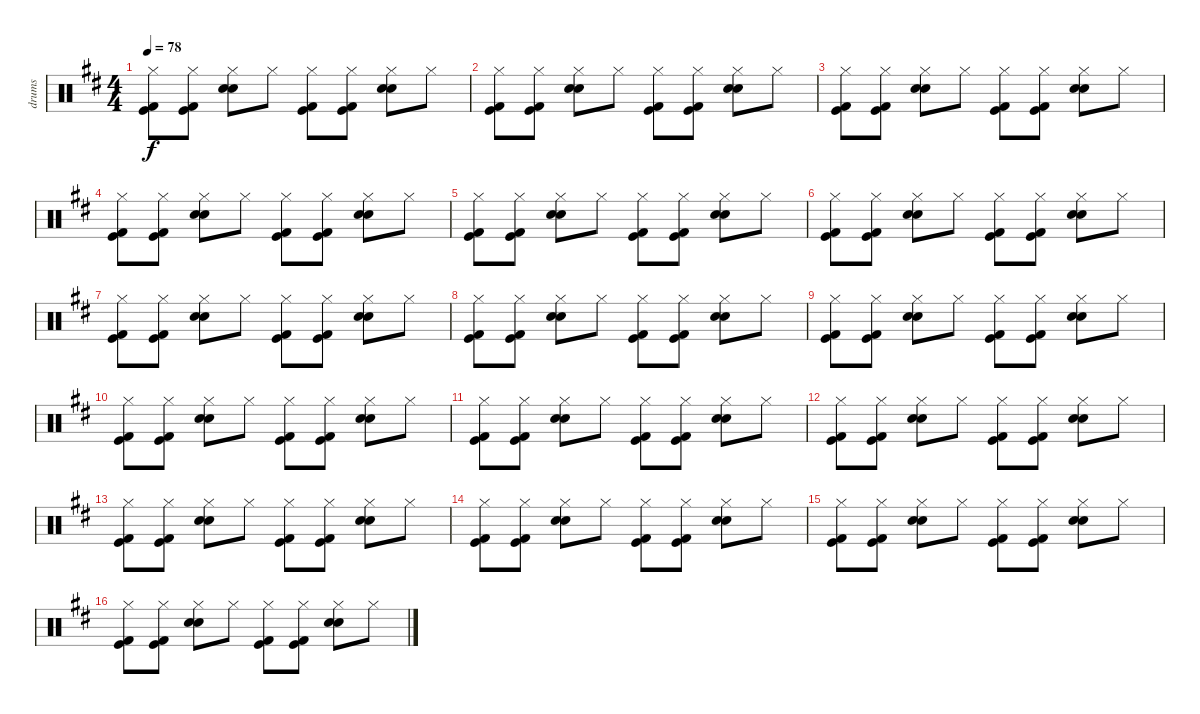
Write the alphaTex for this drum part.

\track ("drums" "drums") {instrument percussion}
\staff {score}
\articulation defaults
\ts (4 4)
\tempo 78
\clef neutral
\ks d
("Kick (hit)" "Kick (hit) 2" "Hi-Hat (closed)").8{dy f} ("Kick (hit)" "Kick (hit) 2" "Hi-Hat (closed)").8 ("Electric Snare (hit)" "Snare (hit) 2" "Hi-Hat (closed)").8 "Hi-Hat (closed)".8 ("Kick (hit)" "Kick (hit) 2" "Hi-Hat (closed)").8 ("Kick (hit)" "Kick (hit) 2" "Hi-Hat (closed)").8 ("Electric Snare (hit)" "Snare (hit) 2" "Hi-Hat (closed)").8 "Hi-Hat (closed)".8 |
("Kick (hit)" "Kick (hit) 2" "Hi-Hat (closed)").8 ("Kick (hit)" "Kick (hit) 2" "Hi-Hat (closed)").8 ("Electric Snare (hit)" "Snare (hit) 2" "Hi-Hat (closed)").8 "Hi-Hat (closed)".8 ("Kick (hit)" "Kick (hit) 2" "Hi-Hat (closed)").8 ("Kick (hit)" "Kick (hit) 2" "Hi-Hat (closed)").8 ("Electric Snare (hit)" "Snare (hit) 2" "Hi-Hat (closed)").8 "Hi-Hat (closed)".8 |
("Kick (hit)" "Kick (hit) 2" "Hi-Hat (closed)").8 ("Kick (hit)" "Kick (hit) 2" "Hi-Hat (closed)").8 ("Electric Snare (hit)" "Snare (hit) 2" "Hi-Hat (closed)").8 "Hi-Hat (closed)".8 ("Kick (hit)" "Kick (hit) 2" "Hi-Hat (closed)").8 ("Kick (hit)" "Kick (hit) 2" "Hi-Hat (closed)").8 ("Electric Snare (hit)" "Snare (hit) 2" "Hi-Hat (closed)").8 "Hi-Hat (closed)".8 |
("Kick (hit)" "Kick (hit) 2" "Hi-Hat (closed)").8 ("Kick (hit)" "Kick (hit) 2" "Hi-Hat (closed)").8 ("Electric Snare (hit)" "Snare (hit) 2" "Hi-Hat (closed)").8 "Hi-Hat (closed)".8 ("Kick (hit)" "Kick (hit) 2" "Hi-Hat (closed)").8 ("Kick (hit)" "Kick (hit) 2" "Hi-Hat (closed)").8 ("Electric Snare (hit)" "Snare (hit) 2" "Hi-Hat (closed)").8 "Hi-Hat (closed)".8 |
("Kick (hit)" "Kick (hit) 2" "Hi-Hat (closed)").8 ("Kick (hit)" "Kick (hit) 2" "Hi-Hat (closed)").8 ("Electric Snare (hit)" "Snare (hit) 2" "Hi-Hat (closed)").8 "Hi-Hat (closed)".8 ("Kick (hit)" "Kick (hit) 2" "Hi-Hat (closed)").8 ("Kick (hit)" "Kick (hit) 2" "Hi-Hat (closed)").8 ("Electric Snare (hit)" "Snare (hit) 2" "Hi-Hat (closed)").8 "Hi-Hat (closed)".8 |
("Kick (hit)" "Kick (hit) 2" "Hi-Hat (closed)").8 ("Kick (hit)" "Kick (hit) 2" "Hi-Hat (closed)").8 ("Electric Snare (hit)" "Snare (hit) 2" "Hi-Hat (closed)").8 "Hi-Hat (closed)".8 ("Kick (hit)" "Kick (hit) 2" "Hi-Hat (closed)").8 ("Kick (hit)" "Kick (hit) 2" "Hi-Hat (closed)").8 ("Electric Snare (hit)" "Snare (hit) 2" "Hi-Hat (closed)").8 "Hi-Hat (closed)".8 |
("Kick (hit)" "Kick (hit) 2" "Hi-Hat (closed)").8 ("Kick (hit)" "Kick (hit) 2" "Hi-Hat (closed)").8 ("Electric Snare (hit)" "Snare (hit) 2" "Hi-Hat (closed)").8 "Hi-Hat (closed)".8 ("Kick (hit)" "Kick (hit) 2" "Hi-Hat (closed)").8 ("Kick (hit)" "Kick (hit) 2" "Hi-Hat (closed)").8 ("Electric Snare (hit)" "Snare (hit) 2" "Hi-Hat (closed)").8 "Hi-Hat (closed)".8 |
("Kick (hit)" "Kick (hit) 2" "Hi-Hat (closed)").8 ("Kick (hit)" "Kick (hit) 2" "Hi-Hat (closed)").8 ("Electric Snare (hit)" "Snare (hit) 2" "Hi-Hat (closed)").8 "Hi-Hat (closed)".8 ("Kick (hit)" "Kick (hit) 2" "Hi-Hat (closed)").8 ("Kick (hit)" "Kick (hit) 2" "Hi-Hat (closed)").8 ("Electric Snare (hit)" "Snare (hit) 2" "Hi-Hat (closed)").8 "Hi-Hat (closed)".8 |
("Kick (hit)" "Kick (hit) 2" "Hi-Hat (closed)").8 ("Kick (hit)" "Kick (hit) 2" "Hi-Hat (closed)").8 ("Electric Snare (hit)" "Snare (hit) 2" "Hi-Hat (closed)").8 "Hi-Hat (closed)".8 ("Kick (hit)" "Kick (hit) 2" "Hi-Hat (closed)").8 ("Kick (hit)" "Kick (hit) 2" "Hi-Hat (closed)").8 ("Electric Snare (hit)" "Snare (hit) 2" "Hi-Hat (closed)").8 "Hi-Hat (closed)".8 |
("Kick (hit)" "Kick (hit) 2" "Hi-Hat (closed)").8 ("Kick (hit)" "Kick (hit) 2" "Hi-Hat (closed)").8 ("Electric Snare (hit)" "Snare (hit) 2" "Hi-Hat (closed)").8 "Hi-Hat (closed)".8 ("Kick (hit)" "Kick (hit) 2" "Hi-Hat (closed)").8 ("Kick (hit)" "Kick (hit) 2" "Hi-Hat (closed)").8 ("Electric Snare (hit)" "Snare (hit) 2" "Hi-Hat (closed)").8 "Hi-Hat (closed)".8 |
("Kick (hit)" "Kick (hit) 2" "Hi-Hat (closed)").8 ("Kick (hit)" "Kick (hit) 2" "Hi-Hat (closed)").8 ("Electric Snare (hit)" "Snare (hit) 2" "Hi-Hat (closed)").8 "Hi-Hat (closed)".8 ("Kick (hit)" "Kick (hit) 2" "Hi-Hat (closed)").8 ("Kick (hit)" "Kick (hit) 2" "Hi-Hat (closed)").8 ("Electric Snare (hit)" "Snare (hit) 2" "Hi-Hat (closed)").8 "Hi-Hat (closed)".8 |
("Kick (hit)" "Kick (hit) 2" "Hi-Hat (closed)").8 ("Kick (hit)" "Kick (hit) 2" "Hi-Hat (closed)").8 ("Electric Snare (hit)" "Snare (hit) 2" "Hi-Hat (closed)").8 "Hi-Hat (closed)".8 ("Kick (hit)" "Kick (hit) 2" "Hi-Hat (closed)").8 ("Kick (hit)" "Kick (hit) 2" "Hi-Hat (closed)").8 ("Electric Snare (hit)" "Snare (hit) 2" "Hi-Hat (closed)").8 "Hi-Hat (closed)".8 |
("Kick (hit)" "Kick (hit) 2" "Hi-Hat (closed)").8 ("Kick (hit)" "Kick (hit) 2" "Hi-Hat (closed)").8 ("Electric Snare (hit)" "Snare (hit) 2" "Hi-Hat (closed)").8 "Hi-Hat (closed)".8 ("Kick (hit)" "Kick (hit) 2" "Hi-Hat (closed)").8 ("Kick (hit)" "Kick (hit) 2" "Hi-Hat (closed)").8 ("Electric Snare (hit)" "Snare (hit) 2" "Hi-Hat (closed)").8 "Hi-Hat (closed)".8 |
("Kick (hit)" "Kick (hit) 2" "Hi-Hat (closed)").8 ("Kick (hit)" "Kick (hit) 2" "Hi-Hat (closed)").8 ("Electric Snare (hit)" "Snare (hit) 2" "Hi-Hat (closed)").8 "Hi-Hat (closed)".8 ("Kick (hit)" "Kick (hit) 2" "Hi-Hat (closed)").8 ("Kick (hit)" "Kick (hit) 2" "Hi-Hat (closed)").8 ("Electric Snare (hit)" "Snare (hit) 2" "Hi-Hat (closed)").8 "Hi-Hat (closed)".8 |
("Kick (hit)" "Kick (hit) 2" "Hi-Hat (closed)").8 ("Kick (hit)" "Kick (hit) 2" "Hi-Hat (closed)").8 ("Electric Snare (hit)" "Snare (hit) 2" "Hi-Hat (closed)").8 "Hi-Hat (closed)".8 ("Kick (hit)" "Kick (hit) 2" "Hi-Hat (closed)").8 ("Kick (hit)" "Kick (hit) 2" "Hi-Hat (closed)").8 ("Electric Snare (hit)" "Snare (hit) 2" "Hi-Hat (closed)").8 "Hi-Hat (closed)".8 |
("Kick (hit)" "Kick (hit) 2" "Hi-Hat (closed)").8 ("Kick (hit)" "Kick (hit) 2" "Hi-Hat (closed)").8 ("Electric Snare (hit)" "Snare (hit) 2" "Hi-Hat (closed)").8 "Hi-Hat (closed)".8 ("Kick (hit)" "Kick (hit) 2" "Hi-Hat (closed)").8 ("Kick (hit)" "Kick (hit) 2" "Hi-Hat (closed)").8 ("Electric Snare (hit)" "Snare (hit) 2" "Hi-Hat (closed)").8 "Hi-Hat (closed)".8
